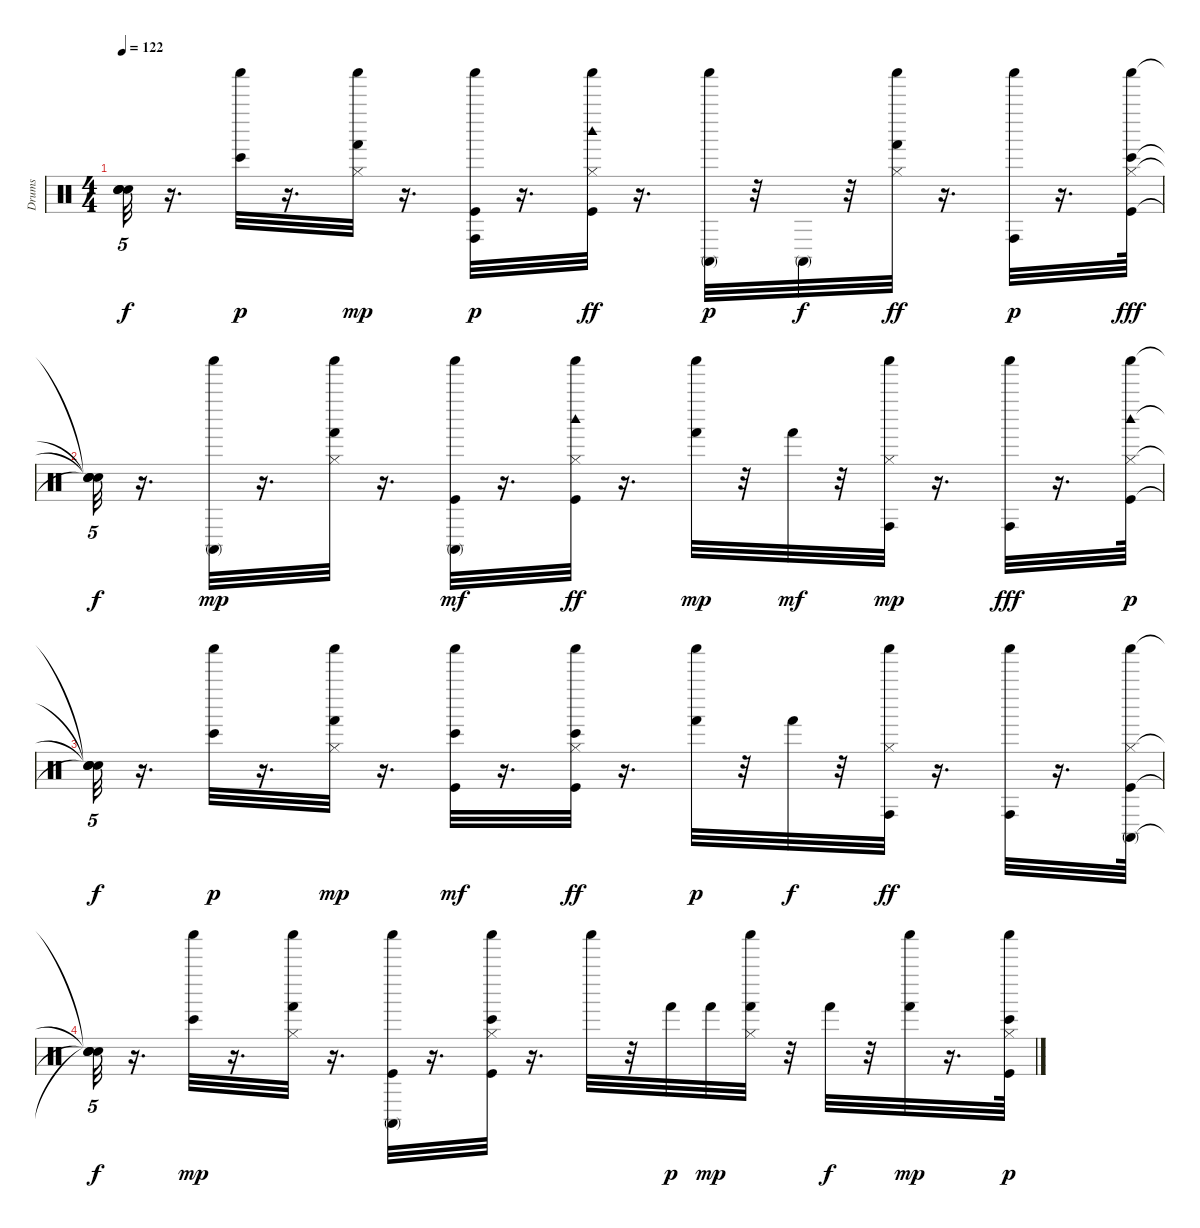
\track ("Drums" "Drums") {instrument percussion}
\staff {score}
\articulation defaults
\ts (4 4)
\tempo 122
\clef neutral
\ks c
("Snare (hit)"{t} "Snare (hit)"{t} "Snare (hit)"{t} "Snare (hit)"{t}).32{tu (5 4) dy f} r.16{d} ("Bongo High (hit)" "Shaker (hit)").32{dy p} r.16{d} ("Hi-Hat (closed)" "Hand (hit)" "Shaker (hit)").32{dy mp} r.16{d} ("Conga high (hit)" "Shaker (hit)" "Kick (hit)").32{dy p} r.16{d} ("Hi-Hat (closed)" "Woodblock high (hit)" "Shaker (hit)" "Kick (hit)").32{dy ff} r.16{d} ("Conga high (mute)" "Shaker (hit)").32{dy p} r.32 "Conga high (mute)".32{dy f} r.32 ("Hi-Hat (closed)" "Shaker (hit)" "Hand (hit)").32{dy ff} r.16{d} ("Conga high (hit)" "Shaker (hit)").32{dy p} r.16{d} ("Hi-Hat (closed)" "Shaker (hit)" "Kick (hit)" "Bongo High (hit)").64{dy fff} |
("Snare (hit)"{t} "Snare (hit)"{t} "Snare (hit)"{t} "Snare (hit)"{t}).32{tu (5 4) dy f} r.16{d} ("Conga high (mute)" "Shaker (hit)").32{dy mp} r.16{d} ("Shaker (hit)" "Hi-Hat (closed)" "Hand (hit)").32 r.16{d} ("Shaker (hit)" "Kick (hit)" "Conga high (mute)").32{dy mf} r.16{d} ("Shaker (hit)" "Kick (hit)" "Hi-Hat (closed)" "Woodblock high (hit)").32{dy ff} r.16{d} ("Hand (hit)" "Shaker (hit)").32{dy mp} r.32 "Hand (hit)".32{dy mf} r.32 ("Conga high (hit)" "Shaker (hit)" "Hi-Hat (closed)").32{dy mp} r.16{d} ("Shaker (hit)" "Conga high (hit)").32{dy fff} r.16{d} ("Woodblock high (hit)" "Kick (hit)" "Hi-Hat (closed)" "Shaker (hit)").64{dy p} |
("Snare (hit)"{t} "Snare (hit)"{t} "Snare (hit)"{t} "Snare (hit)"{t}).32{tu (5 4) dy f} r.16{d} ("Bongo High (hit)" "Shaker (hit)").32{dy p} r.16{d} ("Shaker (hit)" "Hi-Hat (closed)" "Hand (hit)").32{dy mp} r.16{d} ("Shaker (hit)" "Kick (hit)" "Bongo High (hit)").32{dy mf} r.16{d} ("Shaker (hit)" "Kick (hit)" "Hi-Hat (closed)" "Bongo High (hit)").32{dy ff} r.16{d} ("Shaker (hit)" "Hand (hit)").32{dy p} r.32 "Hand (hit)".32{dy f} r.32 ("Shaker (hit)" "Hi-Hat (closed)" "Conga high (hit)").32{dy ff} r.16{d} ("Shaker (hit)" "Conga high (hit)").32 r.16{d} ("Shaker (hit)" "Kick (hit)" "Hi-Hat (closed)" "Conga high (mute)").64 |
("Snare (hit)"{t} "Snare (hit)"{t} "Snare (hit)"{t} "Snare (hit)"{t}).32{tu (5 4) dy f} r.16{d} ("Shaker (hit)" "Bongo High (hit)").32{dy mp} r.16{d} ("Hi-Hat (closed)" "Hand (hit)" "Shaker (hit)").32 r.16{d} ("Shaker (hit)" "Kick (hit)" "Conga high (mute)").32 r.16{d} ("Bongo High (hit)" "Shaker (hit)" "Kick (hit)" "Hi-Hat (closed)").32 r.16{d} "Shaker (hit)".32 r.32 "Hand (hit)".32{dy p} "Hand (hit)".32{dy mp} ("Hi-Hat (closed)" "Hand (hit)" "Shaker (hit)").32 r.32 "Hand (hit)".32{dy f} r.32 ("Hand (hit)" "Shaker (hit)").32{dy mp} r.16{d} ("Kick (hit)" "Hi-Hat (closed)" "Bongo High (hit)" "Shaker (hit)").64{dy p}
